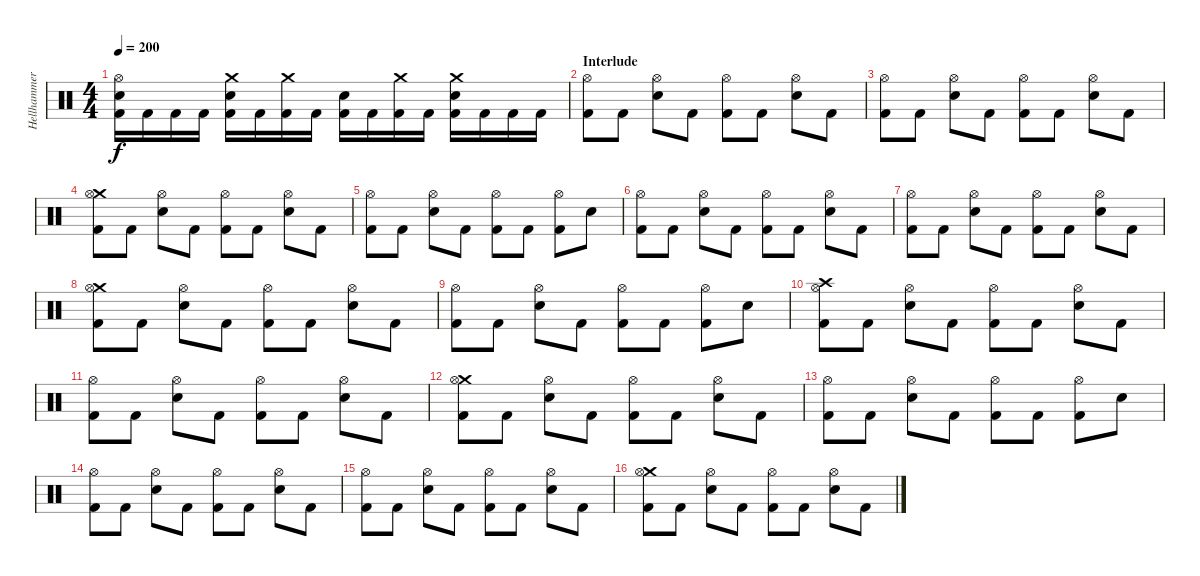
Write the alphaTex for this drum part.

\track ("Hellhammer" "Hellhammer") {instrument percussion}
\staff {score}
\articulation defaults
\ts (4 4)
\tempo 200
\clef neutral
\ks c
("Hi-Hat (open)" "Electric Snare (hit)" "Kick (hit) 2").16{dy f} "Kick (hit) 2".16 "Kick (hit) 2".16 "Kick (hit) 2".16 ("Crash medium (hit)" "Electric Snare (hit)" "Kick (hit) 2").16 "Kick (hit) 2".16 ("Crash medium (hit)" "Kick (hit) 2").16 "Kick (hit) 2".16 ("Electric Snare (hit)" "Kick (hit) 2").16 "Kick (hit) 2".16 ("Crash medium (hit)" "Kick (hit) 2").16 "Kick (hit) 2".16 ("Crash medium (hit)" "Electric Snare (hit)" "Kick (hit) 2").16 "Kick (hit) 2".16 "Kick (hit) 2".16 "Kick (hit) 2".16 |
\section ("" "Interlude")
("Hi-Hat (open)" "Kick (hit) 2").8 "Kick (hit) 2".8 ("Hi-Hat (open)" "Electric Snare (hit)").8 "Kick (hit) 2".8 ("Hi-Hat (open)" "Kick (hit) 2").8 "Kick (hit) 2".8 ("Hi-Hat (open)" "Electric Snare (hit)").8 "Kick (hit) 2".8 |
("Hi-Hat (open)" "Kick (hit) 2").8 "Kick (hit) 2".8 ("Hi-Hat (open)" "Electric Snare (hit)").8 "Kick (hit) 2".8 ("Hi-Hat (open)" "Kick (hit) 2").8 "Kick (hit) 2".8 ("Hi-Hat (open)" "Electric Snare (hit)").8 "Kick (hit) 2".8 |
("Crash medium (hit)" "Hi-Hat (open)" "Kick (hit) 2").8 "Kick (hit) 2".8 ("Hi-Hat (open)" "Electric Snare (hit)").8 "Kick (hit) 2".8 ("Hi-Hat (open)" "Kick (hit) 2").8 "Kick (hit) 2".8 ("Hi-Hat (open)" "Electric Snare (hit)").8 "Kick (hit) 2".8 |
("Hi-Hat (open)" "Kick (hit) 2").8 "Kick (hit) 2".8 ("Hi-Hat (open)" "Electric Snare (hit)").8 "Kick (hit) 2".8 ("Hi-Hat (open)" "Kick (hit) 2").8 "Kick (hit) 2".8 ("Hi-Hat (open)" "Kick (hit) 2").8 "Electric Snare (hit)".8 |
("Hi-Hat (open)" "Kick (hit) 2").8 "Kick (hit) 2".8 ("Hi-Hat (open)" "Electric Snare (hit)").8 "Kick (hit) 2".8 ("Hi-Hat (open)" "Kick (hit) 2").8 "Kick (hit) 2".8 ("Hi-Hat (open)" "Electric Snare (hit)").8 "Kick (hit) 2".8 |
("Hi-Hat (open)" "Kick (hit) 2").8 "Kick (hit) 2".8 ("Hi-Hat (open)" "Electric Snare (hit)").8 "Kick (hit) 2".8 ("Hi-Hat (open)" "Kick (hit) 2").8 "Kick (hit) 2".8 ("Hi-Hat (open)" "Electric Snare (hit)").8 "Kick (hit) 2".8 |
("Crash medium (hit)" "Hi-Hat (open)" "Kick (hit) 2").8 "Kick (hit) 2".8 ("Hi-Hat (open)" "Electric Snare (hit)").8 "Kick (hit) 2".8 ("Hi-Hat (open)" "Kick (hit) 2").8 "Kick (hit) 2".8 ("Hi-Hat (open)" "Electric Snare (hit)").8 "Kick (hit) 2".8 |
("Hi-Hat (open)" "Kick (hit) 2").8 "Kick (hit) 2".8 ("Hi-Hat (open)" "Electric Snare (hit)").8 "Kick (hit) 2".8 ("Hi-Hat (open)" "Kick (hit) 2").8 "Kick (hit) 2".8 ("Hi-Hat (open)" "Kick (hit) 2").8 "Electric Snare (hit)".8 |
("Crash high (hit)" "Hi-Hat (open)" "Kick (hit) 2").8 "Kick (hit) 2".8 ("Hi-Hat (open)" "Electric Snare (hit)").8 "Kick (hit) 2".8 ("Hi-Hat (open)" "Kick (hit) 2").8 "Kick (hit) 2".8 ("Hi-Hat (open)" "Electric Snare (hit)").8 "Kick (hit) 2".8 |
("Hi-Hat (open)" "Kick (hit) 2").8 "Kick (hit) 2".8 ("Hi-Hat (open)" "Electric Snare (hit)").8 "Kick (hit) 2".8 ("Hi-Hat (open)" "Kick (hit) 2").8 "Kick (hit) 2".8 ("Hi-Hat (open)" "Electric Snare (hit)").8 "Kick (hit) 2".8 |
("Crash medium (hit)" "Hi-Hat (open)" "Kick (hit) 2").8 "Kick (hit) 2".8 ("Hi-Hat (open)" "Electric Snare (hit)").8 "Kick (hit) 2".8 ("Hi-Hat (open)" "Kick (hit) 2").8 "Kick (hit) 2".8 ("Hi-Hat (open)" "Electric Snare (hit)").8 "Kick (hit) 2".8 |
("Hi-Hat (open)" "Kick (hit) 2").8 "Kick (hit) 2".8 ("Hi-Hat (open)" "Electric Snare (hit)").8 "Kick (hit) 2".8 ("Hi-Hat (open)" "Kick (hit) 2").8 "Kick (hit) 2".8 ("Hi-Hat (open)" "Kick (hit) 2").8 "Electric Snare (hit)".8 |
("Hi-Hat (open)" "Kick (hit) 2").8 "Kick (hit) 2".8 ("Hi-Hat (open)" "Electric Snare (hit)").8 "Kick (hit) 2".8 ("Hi-Hat (open)" "Kick (hit) 2").8 "Kick (hit) 2".8 ("Hi-Hat (open)" "Electric Snare (hit)").8 "Kick (hit) 2".8 |
("Hi-Hat (open)" "Kick (hit) 2").8 "Kick (hit) 2".8 ("Hi-Hat (open)" "Electric Snare (hit)").8 "Kick (hit) 2".8 ("Hi-Hat (open)" "Kick (hit) 2").8 "Kick (hit) 2".8 ("Hi-Hat (open)" "Electric Snare (hit)").8 "Kick (hit) 2".8 |
("Crash medium (hit)" "Hi-Hat (open)" "Kick (hit) 2").8 "Kick (hit) 2".8 ("Hi-Hat (open)" "Electric Snare (hit)").8 "Kick (hit) 2".8 ("Hi-Hat (open)" "Kick (hit) 2").8 "Kick (hit) 2".8 ("Hi-Hat (open)" "Electric Snare (hit)").8 "Kick (hit) 2".8
